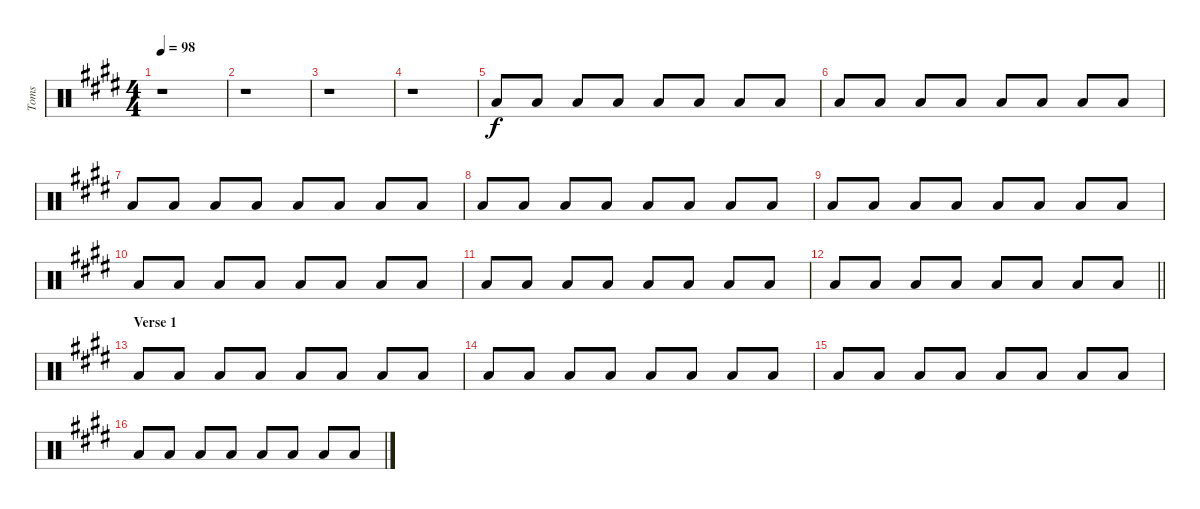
\track ("Toms" "Toms") {instrument percussion}
\staff {score}
\articulation defaults
\ts (4 4)
\tempo 98
\clef neutral
\ks c#minor
r.1{dy f} |
r.1 |
r.1 |
r.1 |
"Low Tom (hit)".8 "Low Floor Tom (hit)".8 "Low Floor Tom (hit)".8 "Low Floor Tom (hit)".8 "Low Tom (hit)".8 "Low Floor Tom (hit)".8 "Low Floor Tom (hit)".8 "Low Floor Tom (hit)".8 |
"Low Tom (hit)".8 "Low Floor Tom (hit)".8 "Low Floor Tom (hit)".8 "Low Floor Tom (hit)".8 "Low Tom (hit)".8 "Low Floor Tom (hit)".8 "Low Floor Tom (hit)".8 "Low Floor Tom (hit)".8 |
"Low Tom (hit)".8 "Low Floor Tom (hit)".8 "Low Floor Tom (hit)".8 "Low Floor Tom (hit)".8 "Low Tom (hit)".8 "Low Floor Tom (hit)".8 "Low Floor Tom (hit)".8 "Low Floor Tom (hit)".8 |
"Low Tom (hit)".8 "Low Floor Tom (hit)".8 "Low Floor Tom (hit)".8 "Low Floor Tom (hit)".8 "Low Tom (hit)".8 "Low Floor Tom (hit)".8 "Low Floor Tom (hit)".8 "Low Floor Tom (hit)".8 |
"Low Tom (hit)".8 "Low Floor Tom (hit)".8 "Low Floor Tom (hit)".8 "Low Floor Tom (hit)".8 "Low Tom (hit)".8 "Low Floor Tom (hit)".8 "Low Floor Tom (hit)".8 "Low Floor Tom (hit)".8 |
"Low Tom (hit)".8 "Low Floor Tom (hit)".8 "Low Floor Tom (hit)".8 "Low Floor Tom (hit)".8 "Low Tom (hit)".8 "Low Floor Tom (hit)".8 "Low Floor Tom (hit)".8 "Low Floor Tom (hit)".8 |
"Low Tom (hit)".8 "Low Floor Tom (hit)".8 "Low Floor Tom (hit)".8 "Low Floor Tom (hit)".8 "Low Tom (hit)".8 "Low Floor Tom (hit)".8 "Low Floor Tom (hit)".8 "Low Floor Tom (hit)".8 |
\barLineRight lightlight "Low Tom (hit)".8 "Low Floor Tom (hit)".8 "Low Floor Tom (hit)".8 "Low Floor Tom (hit)".8 "Low Tom (hit)".8 "Low Floor Tom (hit)".8 "Low Floor Tom (hit)".8 "Low Floor Tom (hit)".8
|
\section ("" "Verse 1")
"Low Tom (hit)".8 "Low Floor Tom (hit)".8 "Low Floor Tom (hit)".8 "Low Floor Tom (hit)".8 "Low Tom (hit)".8 "Low Floor Tom (hit)".8 "Low Floor Tom (hit)".8 "Low Floor Tom (hit)".8 |
"Low Tom (hit)".8 "Low Floor Tom (hit)".8 "Low Floor Tom (hit)".8 "Low Floor Tom (hit)".8 "Low Tom (hit)".8 "Low Floor Tom (hit)".8 "Low Floor Tom (hit)".8 "Low Floor Tom (hit)".8 |
"Low Tom (hit)".8 "Low Floor Tom (hit)".8 "Low Floor Tom (hit)".8 "Low Floor Tom (hit)".8 "Low Tom (hit)".8 "Low Floor Tom (hit)".8 "Low Floor Tom (hit)".8 "Low Floor Tom (hit)".8 |
"Low Tom (hit)".8 "Low Floor Tom (hit)".8 "Low Floor Tom (hit)".8 "Low Floor Tom (hit)".8 "Low Tom (hit)".8 "Low Floor Tom (hit)".8 "Low Floor Tom (hit)".8 "Low Floor Tom (hit)".8
